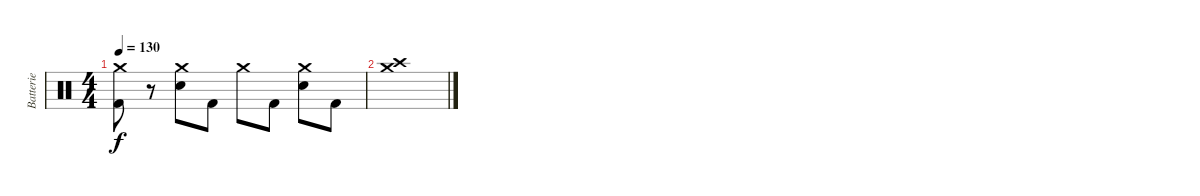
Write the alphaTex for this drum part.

\track ("Batterie" "Batterie") {instrument percussion}
\staff {score}
\articulation defaults
\ts (4 4)
\tempo 130
\clef neutral
\ks c
("Crash medium (hit)" "Kick (hit) 2").8{dy f} r.8 ("Crash medium (hit)" "Snare (hit) 2").8 "Kick (hit) 2".8 "Crash medium (hit)".8 "Kick (hit) 2".8 ("Crash medium (hit)" "Snare (hit) 2").8 "Kick (hit) 2".8 |
("Crash medium (hit)" "Crash high (hit)").1
